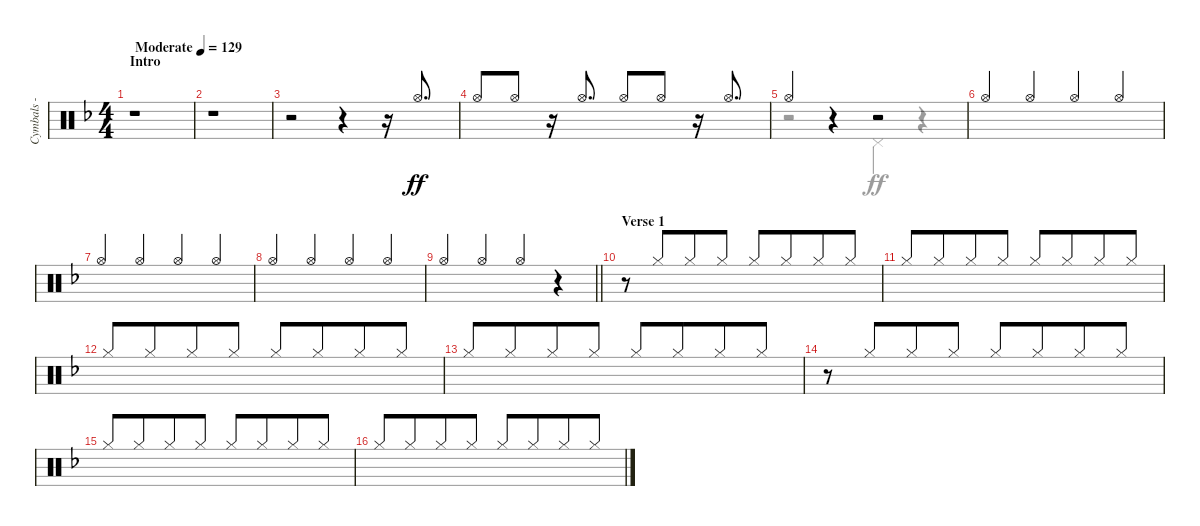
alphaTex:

\track ("Cymbals - hi-hat" "Cymbals - ") {instrument percussion}
\staff {score}
\articulation defaults
\voice
\ts (4 4)
\section ("" "Intro")
\tempo (129 "Moderate")
\clef neutral
\ks dminor
r.1{dy ff balance 12} |
r.1 |
r.2 r.4 r.16 "Hi-Hat (open)".8{d beam Up} |
"Hi-Hat (open)".8{beam Up} "Hi-Hat (open)".8{beam Up} r.16 "Hi-Hat (open)".8{d beam Up} "Hi-Hat (open)".8{beam Up} "Hi-Hat (open)".8{beam Up} r.16 "Hi-Hat (open)".8{d beam Up} |
"Hi-Hat (open)".4{beam Up} r.4 r.2 |
"Hi-Hat (open)".4{beam Up} "Hi-Hat (open)".4{beam Up} "Hi-Hat (open)".4{beam Up} "Hi-Hat (open)".4{beam Up} |
"Hi-Hat (open)".4{beam Up} "Hi-Hat (open)".4{beam Up} "Hi-Hat (open)".4{beam Up} "Hi-Hat (open)".4{beam Up} |
"Hi-Hat (open)".4{beam Up} "Hi-Hat (open)".4{beam Up} "Hi-Hat (open)".4{beam Up} "Hi-Hat (open)".4{beam Up} |
\barLineRight lightlight "Hi-Hat (open)".4{beam Up} "Hi-Hat (open)".4{beam Up} "Hi-Hat (open)".4{beam Up}
r.4 |
\section ("" "Verse 1")
r.8{volume 9} "Hi-Hat (closed)".8{beam Up beam merge} "Hi-Hat (closed)".8{beam Up} "Hi-Hat (closed)".8{beam Up} "Hi-Hat (closed)".8{beam Up} "Hi-Hat (closed)".8{beam Up beam merge} "Hi-Hat (closed)".8{beam Up} "Hi-Hat (closed)".8{beam Up} |
"Hi-Hat (closed)".8{beam Up} "Hi-Hat (closed)".8{beam Up beam merge} "Hi-Hat (closed)".8{beam Up} "Hi-Hat (closed)".8{beam Up} "Hi-Hat (closed)".8{beam Up} "Hi-Hat (closed)".8{beam Up beam merge} "Hi-Hat (closed)".8{beam Up} "Hi-Hat (closed)".8{beam Up} |
"Hi-Hat (closed)".8{beam Up} "Hi-Hat (closed)".8{beam Up beam merge} "Hi-Hat (closed)".8{beam Up} "Hi-Hat (closed)".8{beam Up} "Hi-Hat (closed)".8{beam Up} "Hi-Hat (closed)".8{beam Up beam merge} "Hi-Hat (closed)".8{beam Up} "Hi-Hat (closed)".8{beam Up} |
"Hi-Hat (closed)".8{beam Up} "Hi-Hat (closed)".8{beam Up beam merge} "Hi-Hat (closed)".8{beam Up} "Hi-Hat (closed)".8{beam Up} "Hi-Hat (closed)".8{beam Up} "Hi-Hat (closed)".8{beam Up beam merge} "Hi-Hat (closed)".8{beam Up} "Hi-Hat (closed)".8{beam Up} |
r.8 "Hi-Hat (closed)".8{beam Up beam merge} "Hi-Hat (closed)".8{beam Up} "Hi-Hat (closed)".8{beam Up} "Hi-Hat (closed)".8{beam Up} "Hi-Hat (closed)".8{beam Up beam merge} "Hi-Hat (closed)".8{beam Up} "Hi-Hat (closed)".8{beam Up} |
"Hi-Hat (closed)".8{beam Up} "Hi-Hat (closed)".8{beam Up beam merge} "Hi-Hat (closed)".8{beam Up} "Hi-Hat (closed)".8{beam Up} "Hi-Hat (closed)".8{beam Up} "Hi-Hat (closed)".8{beam Up beam merge} "Hi-Hat (closed)".8{beam Up} "Hi-Hat (closed)".8{beam Up} |
"Hi-Hat (closed)".8{beam Up} "Hi-Hat (closed)".8{beam Up beam merge} "Hi-Hat (closed)".8{beam Up} "Hi-Hat (closed)".8{beam Up} "Hi-Hat (closed)".8{beam Up} "Hi-Hat (closed)".8{beam Up beam merge} "Hi-Hat (closed)".8{beam Up} "Hi-Hat (closed)".8{beam Up}
\voice
\clef neutral
\ottava regular
\simile none
\ks dminor
|
|
|
|
r.2 "Pedal Hi-Hat (hit)".4{beam Down} r.4 |
|
|
|
\barLineRight lightlight
|
|
|
|
|
|
|
